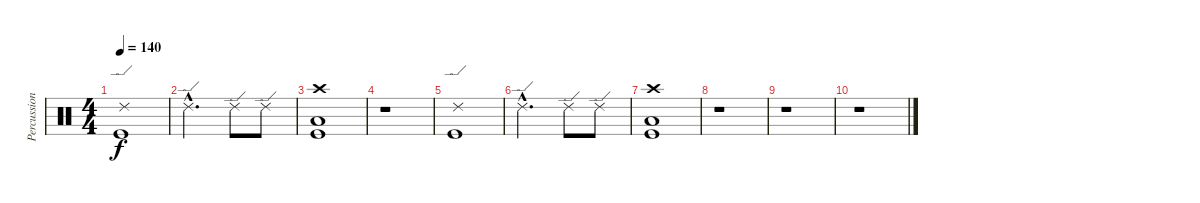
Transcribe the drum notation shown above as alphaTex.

\track ("Percussion" "Percussion") {instrument percussion}
\staff {score}
\articulation defaults
\ts (4 4)
\tempo 140
\clef neutral
\ks c
("Ride (edge) 2" "Kick (hit)").1{dy f} |
"Ride (edge) 2"{hac}.2{d} "Ride (edge) 2".8 "Ride (edge) 2".8 |
("Crash high (hit)" "Low Floor Tom (hit)" "Kick (hit)").1 |
r.1 |
("Ride (edge) 2" "Kick (hit)").1{volume 0} |
"Ride (edge) 2"{hac}.2{d} "Ride (edge) 2".8 "Ride (edge) 2".8 |
("Crash high (hit)" "Low Floor Tom (hit)" "Kick (hit)").1 |
r.1 |
r.1 |
r.1
